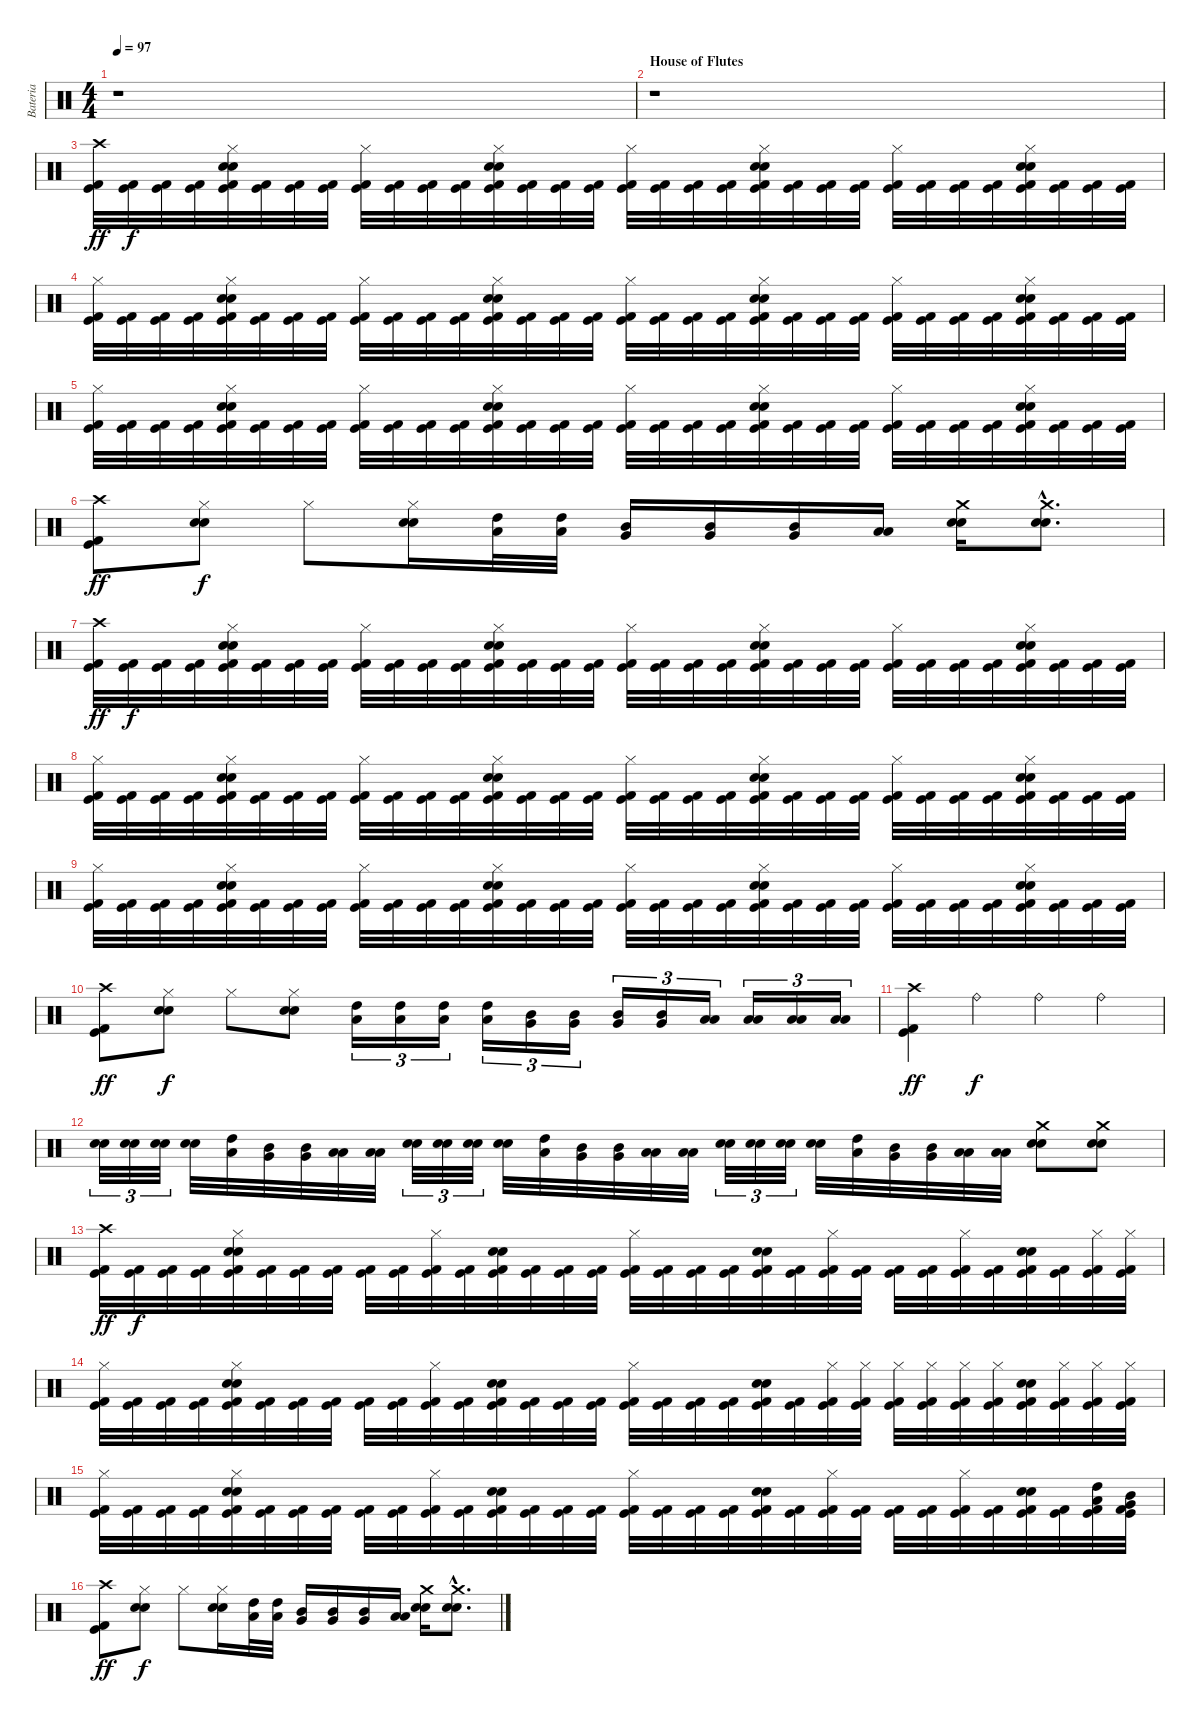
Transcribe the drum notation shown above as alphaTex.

\track ("Bateria" "Bateria") {instrument percussion}
\staff {score}
\articulation defaults
\ts (4 4)
\tempo 97
\clef neutral
\ks c
r.1{dy fff} |
\section ("" "House of Flutes")
r.1 |
("Crash high (hit)" "Kick (hit) 2" "Kick (hit)").32{dy ff} ("Kick (hit) 2" "Kick (hit)").32{dy f} ("Kick (hit) 2" "Kick (hit)").32 ("Kick (hit) 2" "Kick (hit)").32 ("Hi-Hat (closed)" "Electric Snare (hit)" "Snare (hit) 2" "Kick (hit) 2" "Kick (hit)").32 ("Kick (hit) 2" "Kick (hit)").32 ("Kick (hit) 2" "Kick (hit)").32 ("Kick (hit) 2" "Kick (hit)").32 ("Hi-Hat (closed)" "Kick (hit) 2" "Kick (hit)").32 ("Kick (hit) 2" "Kick (hit)").32 ("Kick (hit) 2" "Kick (hit)").32 ("Kick (hit) 2" "Kick (hit)").32 ("Hi-Hat (closed)" "Electric Snare (hit)" "Snare (hit) 2" "Kick (hit) 2" "Kick (hit)").32 ("Kick (hit) 2" "Kick (hit)").32 ("Kick (hit) 2" "Kick (hit)").32 ("Kick (hit) 2" "Kick (hit)").32 ("Hi-Hat (closed)" "Kick (hit) 2" "Kick (hit)").32 ("Kick (hit) 2" "Kick (hit)").32 ("Kick (hit) 2" "Kick (hit)").32 ("Kick (hit) 2" "Kick (hit)").32 ("Hi-Hat (closed)" "Electric Snare (hit)" "Snare (hit) 2" "Kick (hit) 2" "Kick (hit)").32 ("Kick (hit) 2" "Kick (hit)").32 ("Kick (hit) 2" "Kick (hit)").32 ("Kick (hit) 2" "Kick (hit)").32 ("Hi-Hat (closed)" "Kick (hit) 2" "Kick (hit)").32 ("Kick (hit) 2" "Kick (hit)").32 ("Kick (hit) 2" "Kick (hit)").32 ("Kick (hit) 2" "Kick (hit)").32 ("Hi-Hat (closed)" "Electric Snare (hit)" "Snare (hit) 2" "Kick (hit) 2" "Kick (hit)").32 ("Kick (hit) 2" "Kick (hit)").32 ("Kick (hit) 2" "Kick (hit)").32 ("Kick (hit) 2" "Kick (hit)").32 |
("Hi-Hat (closed)" "Kick (hit) 2" "Kick (hit)").32 ("Kick (hit) 2" "Kick (hit)").32 ("Kick (hit) 2" "Kick (hit)").32 ("Kick (hit) 2" "Kick (hit)").32 ("Hi-Hat (closed)" "Electric Snare (hit)" "Snare (hit) 2" "Kick (hit) 2" "Kick (hit)").32 ("Kick (hit) 2" "Kick (hit)").32 ("Kick (hit) 2" "Kick (hit)").32 ("Kick (hit) 2" "Kick (hit)").32 ("Hi-Hat (closed)" "Kick (hit) 2" "Kick (hit)").32 ("Kick (hit) 2" "Kick (hit)").32 ("Kick (hit) 2" "Kick (hit)").32 ("Kick (hit) 2" "Kick (hit)").32 ("Hi-Hat (closed)" "Electric Snare (hit)" "Snare (hit) 2" "Kick (hit) 2" "Kick (hit)").32 ("Kick (hit) 2" "Kick (hit)").32 ("Kick (hit) 2" "Kick (hit)").32 ("Kick (hit) 2" "Kick (hit)").32 ("Hi-Hat (closed)" "Kick (hit) 2" "Kick (hit)").32 ("Kick (hit) 2" "Kick (hit)").32 ("Kick (hit) 2" "Kick (hit)").32 ("Kick (hit) 2" "Kick (hit)").32 ("Hi-Hat (closed)" "Electric Snare (hit)" "Snare (hit) 2" "Kick (hit) 2" "Kick (hit)").32 ("Kick (hit) 2" "Kick (hit)").32 ("Kick (hit) 2" "Kick (hit)").32 ("Kick (hit) 2" "Kick (hit)").32 ("Hi-Hat (closed)" "Kick (hit) 2" "Kick (hit)").32 ("Kick (hit) 2" "Kick (hit)").32 ("Kick (hit) 2" "Kick (hit)").32 ("Kick (hit) 2" "Kick (hit)").32 ("Hi-Hat (closed)" "Electric Snare (hit)" "Snare (hit) 2" "Kick (hit) 2" "Kick (hit)").32 ("Kick (hit) 2" "Kick (hit)").32 ("Kick (hit) 2" "Kick (hit)").32 ("Kick (hit) 2" "Kick (hit)").32 |
("Hi-Hat (closed)" "Kick (hit) 2" "Kick (hit)").32 ("Kick (hit) 2" "Kick (hit)").32 ("Kick (hit) 2" "Kick (hit)").32 ("Kick (hit) 2" "Kick (hit)").32 ("Hi-Hat (closed)" "Electric Snare (hit)" "Snare (hit) 2" "Kick (hit) 2" "Kick (hit)").32 ("Kick (hit) 2" "Kick (hit)").32 ("Kick (hit) 2" "Kick (hit)").32 ("Kick (hit) 2" "Kick (hit)").32 ("Hi-Hat (closed)" "Kick (hit) 2" "Kick (hit)").32 ("Kick (hit) 2" "Kick (hit)").32 ("Kick (hit) 2" "Kick (hit)").32 ("Kick (hit) 2" "Kick (hit)").32 ("Hi-Hat (closed)" "Electric Snare (hit)" "Snare (hit) 2" "Kick (hit) 2" "Kick (hit)").32 ("Kick (hit) 2" "Kick (hit)").32 ("Kick (hit) 2" "Kick (hit)").32 ("Kick (hit) 2" "Kick (hit)").32 ("Hi-Hat (closed)" "Kick (hit) 2" "Kick (hit)").32 ("Kick (hit) 2" "Kick (hit)").32 ("Kick (hit) 2" "Kick (hit)").32 ("Kick (hit) 2" "Kick (hit)").32 ("Hi-Hat (closed)" "Electric Snare (hit)" "Snare (hit) 2" "Kick (hit) 2" "Kick (hit)").32 ("Kick (hit) 2" "Kick (hit)").32 ("Kick (hit) 2" "Kick (hit)").32 ("Kick (hit) 2" "Kick (hit)").32 ("Hi-Hat (closed)" "Kick (hit) 2" "Kick (hit)").32 ("Kick (hit) 2" "Kick (hit)").32 ("Kick (hit) 2" "Kick (hit)").32 ("Kick (hit) 2" "Kick (hit)").32 ("Hi-Hat (closed)" "Electric Snare (hit)" "Snare (hit) 2" "Kick (hit) 2" "Kick (hit)").32 ("Kick (hit) 2" "Kick (hit)").32 ("Kick (hit) 2" "Kick (hit)").32 ("Kick (hit) 2" "Kick (hit)").32 |
("Crash high (hit)" "Kick (hit) 2" "Kick (hit)").8{dy ff} ("Hi-Hat (closed)" "Electric Snare (hit)" "Snare (hit) 2").8{dy f} "Hi-Hat (closed)".8 ("Hi-Hat (closed)" "Electric Snare (hit)" "Snare (hit) 2").16 ("High Tom (hit)" "Low Tom (hit)").32 ("High Tom (hit)" "Low Tom (hit)").32 ("Mid Tom (hit)" "Very Low Tom (hit)").16 ("Mid Tom (hit)" "Very Low Tom (hit)").16 ("Mid Tom (hit)" "Very Low Tom (hit)").16 ("Low Tom (hit)" "Low Floor Tom (hit)").16 ("Crash medium (hit)" "Electric Snare (hit)" "Snare (hit) 2").16 ("Crash medium (hit)"{hac} "Electric Snare (hit)"{hac} "Snare (hit) 2"{hac}).8{d} |
("Crash high (hit)" "Kick (hit) 2" "Kick (hit)").32{dy ff} ("Kick (hit) 2" "Kick (hit)").32{dy f} ("Kick (hit) 2" "Kick (hit)").32 ("Kick (hit) 2" "Kick (hit)").32 ("Hi-Hat (closed)" "Electric Snare (hit)" "Snare (hit) 2" "Kick (hit) 2" "Kick (hit)").32 ("Kick (hit) 2" "Kick (hit)").32 ("Kick (hit) 2" "Kick (hit)").32 ("Kick (hit) 2" "Kick (hit)").32 ("Hi-Hat (closed)" "Kick (hit) 2" "Kick (hit)").32 ("Kick (hit) 2" "Kick (hit)").32 ("Kick (hit) 2" "Kick (hit)").32 ("Kick (hit) 2" "Kick (hit)").32 ("Hi-Hat (closed)" "Electric Snare (hit)" "Snare (hit) 2" "Kick (hit) 2" "Kick (hit)").32 ("Kick (hit) 2" "Kick (hit)").32 ("Kick (hit) 2" "Kick (hit)").32 ("Kick (hit) 2" "Kick (hit)").32 ("Hi-Hat (closed)" "Kick (hit) 2" "Kick (hit)").32 ("Kick (hit) 2" "Kick (hit)").32 ("Kick (hit) 2" "Kick (hit)").32 ("Kick (hit) 2" "Kick (hit)").32 ("Hi-Hat (closed)" "Electric Snare (hit)" "Snare (hit) 2" "Kick (hit) 2" "Kick (hit)").32 ("Kick (hit) 2" "Kick (hit)").32 ("Kick (hit) 2" "Kick (hit)").32 ("Kick (hit) 2" "Kick (hit)").32 ("Hi-Hat (closed)" "Kick (hit) 2" "Kick (hit)").32 ("Kick (hit) 2" "Kick (hit)").32 ("Kick (hit) 2" "Kick (hit)").32 ("Kick (hit) 2" "Kick (hit)").32 ("Hi-Hat (closed)" "Electric Snare (hit)" "Snare (hit) 2" "Kick (hit) 2" "Kick (hit)").32 ("Kick (hit) 2" "Kick (hit)").32 ("Kick (hit) 2" "Kick (hit)").32 ("Kick (hit) 2" "Kick (hit)").32 |
("Hi-Hat (closed)" "Kick (hit) 2" "Kick (hit)").32 ("Kick (hit) 2" "Kick (hit)").32 ("Kick (hit) 2" "Kick (hit)").32 ("Kick (hit) 2" "Kick (hit)").32 ("Hi-Hat (closed)" "Electric Snare (hit)" "Snare (hit) 2" "Kick (hit) 2" "Kick (hit)").32 ("Kick (hit) 2" "Kick (hit)").32 ("Kick (hit) 2" "Kick (hit)").32 ("Kick (hit) 2" "Kick (hit)").32 ("Hi-Hat (closed)" "Kick (hit) 2" "Kick (hit)").32 ("Kick (hit) 2" "Kick (hit)").32 ("Kick (hit) 2" "Kick (hit)").32 ("Kick (hit) 2" "Kick (hit)").32 ("Hi-Hat (closed)" "Electric Snare (hit)" "Snare (hit) 2" "Kick (hit) 2" "Kick (hit)").32 ("Kick (hit) 2" "Kick (hit)").32 ("Kick (hit) 2" "Kick (hit)").32 ("Kick (hit) 2" "Kick (hit)").32 ("Hi-Hat (closed)" "Kick (hit) 2" "Kick (hit)").32 ("Kick (hit) 2" "Kick (hit)").32 ("Kick (hit) 2" "Kick (hit)").32 ("Kick (hit) 2" "Kick (hit)").32 ("Hi-Hat (closed)" "Electric Snare (hit)" "Snare (hit) 2" "Kick (hit) 2" "Kick (hit)").32 ("Kick (hit) 2" "Kick (hit)").32 ("Kick (hit) 2" "Kick (hit)").32 ("Kick (hit) 2" "Kick (hit)").32 ("Hi-Hat (closed)" "Kick (hit) 2" "Kick (hit)").32 ("Kick (hit) 2" "Kick (hit)").32 ("Kick (hit) 2" "Kick (hit)").32 ("Kick (hit) 2" "Kick (hit)").32 ("Hi-Hat (closed)" "Electric Snare (hit)" "Snare (hit) 2" "Kick (hit) 2" "Kick (hit)").32 ("Kick (hit) 2" "Kick (hit)").32 ("Kick (hit) 2" "Kick (hit)").32 ("Kick (hit) 2" "Kick (hit)").32 |
("Hi-Hat (closed)" "Kick (hit) 2" "Kick (hit)").32 ("Kick (hit) 2" "Kick (hit)").32 ("Kick (hit) 2" "Kick (hit)").32 ("Kick (hit) 2" "Kick (hit)").32 ("Hi-Hat (closed)" "Electric Snare (hit)" "Snare (hit) 2" "Kick (hit) 2" "Kick (hit)").32 ("Kick (hit) 2" "Kick (hit)").32 ("Kick (hit) 2" "Kick (hit)").32 ("Kick (hit) 2" "Kick (hit)").32 ("Hi-Hat (closed)" "Kick (hit) 2" "Kick (hit)").32 ("Kick (hit) 2" "Kick (hit)").32 ("Kick (hit) 2" "Kick (hit)").32 ("Kick (hit) 2" "Kick (hit)").32 ("Hi-Hat (closed)" "Electric Snare (hit)" "Snare (hit) 2" "Kick (hit) 2" "Kick (hit)").32 ("Kick (hit) 2" "Kick (hit)").32 ("Kick (hit) 2" "Kick (hit)").32 ("Kick (hit) 2" "Kick (hit)").32 ("Hi-Hat (closed)" "Kick (hit) 2" "Kick (hit)").32 ("Kick (hit) 2" "Kick (hit)").32 ("Kick (hit) 2" "Kick (hit)").32 ("Kick (hit) 2" "Kick (hit)").32 ("Hi-Hat (closed)" "Electric Snare (hit)" "Snare (hit) 2" "Kick (hit) 2" "Kick (hit)").32 ("Kick (hit) 2" "Kick (hit)").32 ("Kick (hit) 2" "Kick (hit)").32 ("Kick (hit) 2" "Kick (hit)").32 ("Hi-Hat (closed)" "Kick (hit) 2" "Kick (hit)").32 ("Kick (hit) 2" "Kick (hit)").32 ("Kick (hit) 2" "Kick (hit)").32 ("Kick (hit) 2" "Kick (hit)").32 ("Hi-Hat (closed)" "Electric Snare (hit)" "Snare (hit) 2" "Kick (hit) 2" "Kick (hit)").32 ("Kick (hit) 2" "Kick (hit)").32 ("Kick (hit) 2" "Kick (hit)").32 ("Kick (hit) 2" "Kick (hit)").32 |
("Crash high (hit)" "Kick (hit) 2" "Kick (hit)").8{dy ff} ("Hi-Hat (closed)" "Electric Snare (hit)" "Snare (hit) 2").8{dy f} "Hi-Hat (closed)".8 ("Hi-Hat (closed)" "Electric Snare (hit)" "Snare (hit) 2").8 ("High Tom (hit)" "Low Tom (hit)").16{tu (3 2)} ("High Tom (hit)" "Low Tom (hit)").16{tu (3 2)} ("High Tom (hit)" "Low Tom (hit)").16{tu (3 2)} ("High Tom (hit)" "Low Tom (hit)").16{tu (3 2)} ("Mid Tom (hit)" "Very Low Tom (hit)").16{tu (3 2)} ("Mid Tom (hit)" "Very Low Tom (hit)").16{tu (3 2)} ("Mid Tom (hit)" "Very Low Tom (hit)").16{tu (3 2)} ("Mid Tom (hit)" "Very Low Tom (hit)").16{tu (3 2)} ("Low Tom (hit)" "Low Floor Tom (hit)").16{tu (3 2)} ("Low Tom (hit)" "Low Floor Tom (hit)").16{tu (3 2)} ("Low Tom (hit)" "Low Floor Tom (hit)").16{tu (3 2)} ("Low Tom (hit)" "Low Floor Tom (hit)").16{tu (3 2)} |
("Crash high (hit)" "Kick (hit) 2" "Kick (hit)").4{dy ff} "Ride (bell)".4{dy f} "Ride (bell)".4 "Ride (bell)".4 |
("Electric Snare (hit)" "Snare (hit) 2").32{tu (3 2)} ("Electric Snare (hit)" "Snare (hit) 2").32{tu (3 2)} ("Electric Snare (hit)" "Snare (hit) 2").32{tu (3 2)} ("Electric Snare (hit)" "Snare (hit) 2").32 ("High Tom (hit)" "Low Tom (hit)").32 ("Mid Tom (hit)" "Very Low Tom (hit)").32 ("Mid Tom (hit)" "Very Low Tom (hit)").32 ("Low Tom (hit)" "Low Floor Tom (hit)").32 ("Low Tom (hit)" "Low Floor Tom (hit)").32 ("Electric Snare (hit)" "Snare (hit) 2").32{tu (3 2)} ("Electric Snare (hit)" "Snare (hit) 2").32{tu (3 2)} ("Electric Snare (hit)" "Snare (hit) 2").32{tu (3 2)} ("Electric Snare (hit)" "Snare (hit) 2").32 ("High Tom (hit)" "Low Tom (hit)").32 ("Mid Tom (hit)" "Very Low Tom (hit)").32 ("Mid Tom (hit)" "Very Low Tom (hit)").32 ("Low Tom (hit)" "Low Floor Tom (hit)").32 ("Low Tom (hit)" "Low Floor Tom (hit)").32 ("Electric Snare (hit)" "Snare (hit) 2").32{tu (3 2)} ("Electric Snare (hit)" "Snare (hit) 2").32{tu (3 2)} ("Electric Snare (hit)" "Snare (hit) 2").32{tu (3 2)} ("Electric Snare (hit)" "Snare (hit) 2").32 ("High Tom (hit)" "Low Tom (hit)").32 ("Mid Tom (hit)" "Very Low Tom (hit)").32 ("Mid Tom (hit)" "Very Low Tom (hit)").32 ("Low Tom (hit)" "Low Floor Tom (hit)").32 ("Low Tom (hit)" "Low Floor Tom (hit)").32 ("Crash medium (hit)" "Electric Snare (hit)" "Snare (hit) 2").8 ("Crash medium (hit)" "Electric Snare (hit)" "Snare (hit) 2").8 |
("Crash high (hit)" "Kick (hit) 2" "Kick (hit)").32{dy ff} ("Kick (hit) 2" "Kick (hit)").32{dy f} ("Kick (hit) 2" "Kick (hit)").32 ("Kick (hit) 2" "Kick (hit)").32 ("Hi-Hat (closed)" "Electric Snare (hit)" "Snare (hit) 2" "Kick (hit) 2" "Kick (hit)").32 ("Kick (hit) 2" "Kick (hit)").32 ("Kick (hit) 2" "Kick (hit)").32 ("Kick (hit) 2" "Kick (hit)").32 ("Kick (hit) 2" "Kick (hit)").32 ("Kick (hit) 2" "Kick (hit)").32 ("Hi-Hat (closed)" "Kick (hit) 2" "Kick (hit)").32 ("Kick (hit) 2" "Kick (hit)").32 ("Electric Snare (hit)" "Snare (hit) 2" "Kick (hit) 2" "Kick (hit)").32 ("Kick (hit) 2" "Kick (hit)").32 ("Kick (hit) 2" "Kick (hit)").32 ("Kick (hit) 2" "Kick (hit)").32 ("Hi-Hat (closed)" "Kick (hit) 2" "Kick (hit)").32 ("Kick (hit) 2" "Kick (hit)").32 ("Kick (hit) 2" "Kick (hit)").32 ("Kick (hit) 2" "Kick (hit)").32 ("Electric Snare (hit)" "Snare (hit) 2" "Kick (hit) 2" "Kick (hit)").32 ("Kick (hit) 2" "Kick (hit)").32 ("Hi-Hat (closed)" "Kick (hit) 2" "Kick (hit)").32 ("Kick (hit) 2" "Kick (hit)").32 ("Kick (hit) 2" "Kick (hit)").32 ("Kick (hit) 2" "Kick (hit)").32 ("Hi-Hat (closed)" "Kick (hit) 2" "Kick (hit)").32 ("Kick (hit) 2" "Kick (hit)").32 ("Electric Snare (hit)" "Snare (hit) 2" "Kick (hit) 2" "Kick (hit)").32 ("Kick (hit) 2" "Kick (hit)").32 ("Hi-Hat (closed)" "Kick (hit) 2" "Kick (hit)").32 ("Hi-Hat (closed)" "Kick (hit) 2" "Kick (hit)").32 |
("Hi-Hat (closed)" "Kick (hit) 2" "Kick (hit)").32 ("Kick (hit) 2" "Kick (hit)").32 ("Kick (hit) 2" "Kick (hit)").32 ("Kick (hit) 2" "Kick (hit)").32 ("Hi-Hat (closed)" "Electric Snare (hit)" "Snare (hit) 2" "Kick (hit) 2" "Kick (hit)").32 ("Kick (hit) 2" "Kick (hit)").32 ("Kick (hit) 2" "Kick (hit)").32 ("Kick (hit) 2" "Kick (hit)").32 ("Kick (hit) 2" "Kick (hit)").32 ("Kick (hit) 2" "Kick (hit)").32 ("Hi-Hat (closed)" "Kick (hit) 2" "Kick (hit)").32 ("Kick (hit) 2" "Kick (hit)").32 ("Electric Snare (hit)" "Snare (hit) 2" "Kick (hit) 2" "Kick (hit)").32 ("Kick (hit) 2" "Kick (hit)").32 ("Kick (hit) 2" "Kick (hit)").32 ("Kick (hit) 2" "Kick (hit)").32 ("Hi-Hat (closed)" "Kick (hit) 2" "Kick (hit)").32 ("Kick (hit) 2" "Kick (hit)").32 ("Kick (hit) 2" "Kick (hit)").32 ("Kick (hit) 2" "Kick (hit)").32 ("Electric Snare (hit)" "Snare (hit) 2" "Kick (hit) 2" "Kick (hit)").32 ("Kick (hit) 2" "Kick (hit)").32 ("Hi-Hat (closed)" "Kick (hit) 2" "Kick (hit)").32 ("Hi-Hat (closed)" "Kick (hit) 2" "Kick (hit)").32 ("Hi-Hat (closed)" "Kick (hit) 2" "Kick (hit)").32 ("Hi-Hat (closed)" "Kick (hit) 2" "Kick (hit)").32 ("Hi-Hat (closed)" "Kick (hit) 2" "Kick (hit)").32 ("Hi-Hat (closed)" "Kick (hit) 2" "Kick (hit)").32 ("Electric Snare (hit)" "Snare (hit) 2" "Kick (hit) 2" "Kick (hit)").32 ("Hi-Hat (closed)" "Kick (hit) 2" "Kick (hit)").32 ("Hi-Hat (closed)" "Kick (hit) 2" "Kick (hit)").32 ("Hi-Hat (closed)" "Kick (hit) 2" "Kick (hit)").32 |
("Hi-Hat (closed)" "Kick (hit) 2" "Kick (hit)").32 ("Kick (hit) 2" "Kick (hit)").32 ("Kick (hit) 2" "Kick (hit)").32 ("Kick (hit) 2" "Kick (hit)").32 ("Hi-Hat (closed)" "Electric Snare (hit)" "Snare (hit) 2" "Kick (hit) 2" "Kick (hit)").32 ("Kick (hit) 2" "Kick (hit)").32 ("Kick (hit) 2" "Kick (hit)").32 ("Kick (hit) 2" "Kick (hit)").32 ("Kick (hit) 2" "Kick (hit)").32 ("Kick (hit) 2" "Kick (hit)").32 ("Hi-Hat (closed)" "Kick (hit) 2" "Kick (hit)").32 ("Kick (hit) 2" "Kick (hit)").32 ("Electric Snare (hit)" "Snare (hit) 2" "Kick (hit) 2" "Kick (hit)").32 ("Kick (hit) 2" "Kick (hit)").32 ("Kick (hit) 2" "Kick (hit)").32 ("Kick (hit) 2" "Kick (hit)").32 ("Hi-Hat (closed)" "Kick (hit) 2" "Kick (hit)").32 ("Kick (hit) 2" "Kick (hit)").32 ("Kick (hit) 2" "Kick (hit)").32 ("Kick (hit) 2" "Kick (hit)").32 ("Electric Snare (hit)" "Snare (hit) 2" "Kick (hit) 2" "Kick (hit)").32 ("Kick (hit) 2" "Kick (hit)").32 ("Hi-Hat (closed)" "Kick (hit) 2" "Kick (hit)").32 ("Kick (hit) 2" "Kick (hit)").32 ("Kick (hit) 2" "Kick (hit)").32 ("Kick (hit) 2" "Kick (hit)").32 ("Hi-Hat (closed)" "Kick (hit) 2" "Kick (hit)").32 ("Kick (hit) 2" "Kick (hit)").32 ("Electric Snare (hit)" "Snare (hit) 2" "Kick (hit) 2" "Kick (hit)").32 ("Kick (hit) 2" "Kick (hit)").32 ("High Tom (hit)" "Low Tom (hit)" "Kick (hit) 2" "Kick (hit)").32 ("Mid Tom (hit)" "Very Low Tom (hit)" "Kick (hit) 2" "Kick (hit)").32 |
("Crash high (hit)" "Kick (hit) 2" "Kick (hit)").8{dy ff} ("Hi-Hat (closed)" "Electric Snare (hit)" "Snare (hit) 2").8{dy f} "Hi-Hat (closed)".8 ("Hi-Hat (closed)" "Electric Snare (hit)" "Snare (hit) 2").16 ("High Tom (hit)" "Low Tom (hit)").32 ("High Tom (hit)" "Low Tom (hit)").32 ("Mid Tom (hit)" "Very Low Tom (hit)").16 ("Mid Tom (hit)" "Very Low Tom (hit)").16 ("Mid Tom (hit)" "Very Low Tom (hit)").16 ("Low Tom (hit)" "Low Floor Tom (hit)").16 ("Crash medium (hit)" "Electric Snare (hit)" "Snare (hit) 2").16 ("Crash medium (hit)"{hac} "Electric Snare (hit)"{hac} "Snare (hit) 2"{hac}).8{d}
